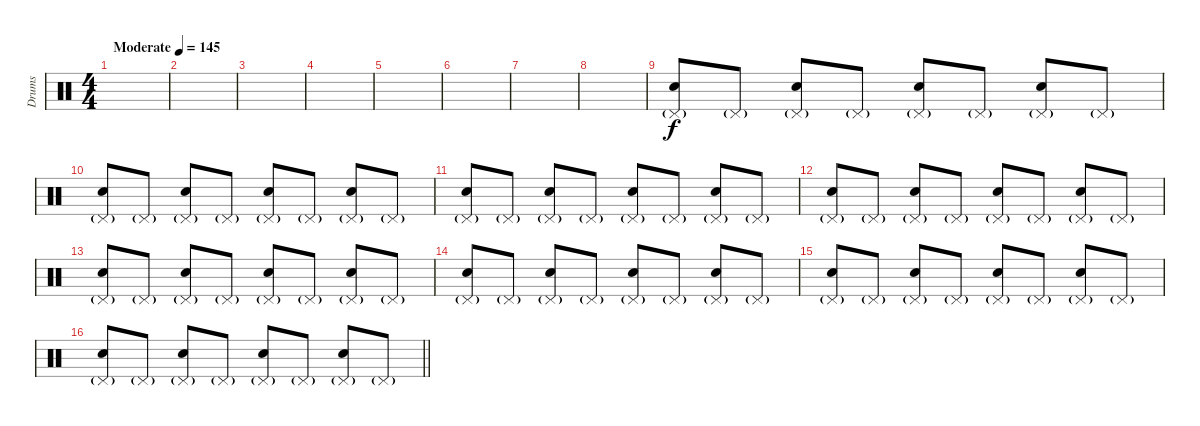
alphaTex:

\track ("Drums" "Drums") {instrument percussion}
\staff {score}
\articulation defaults
\ts (4 4)
\tempo (145 "Moderate")
\clef neutral
\ks c
|
|
|
|
|
|
|
|
("Pedal Hi-Hat (hit)"{g} "Electric Snare (hit)").8 "Pedal Hi-Hat (hit)"{g}.8 ("Pedal Hi-Hat (hit)"{g} "Electric Snare (hit)").8 "Pedal Hi-Hat (hit)"{g}.8 ("Pedal Hi-Hat (hit)"{g} "Electric Snare (hit)").8 "Pedal Hi-Hat (hit)"{g}.8 ("Pedal Hi-Hat (hit)"{g} "Electric Snare (hit)").8 "Pedal Hi-Hat (hit)"{g}.8 |
("Pedal Hi-Hat (hit)"{g} "Electric Snare (hit)").8 "Pedal Hi-Hat (hit)"{g}.8 ("Pedal Hi-Hat (hit)"{g} "Electric Snare (hit)").8 "Pedal Hi-Hat (hit)"{g}.8 ("Pedal Hi-Hat (hit)"{g} "Electric Snare (hit)").8 "Pedal Hi-Hat (hit)"{g}.8 ("Pedal Hi-Hat (hit)"{g} "Electric Snare (hit)").8 "Pedal Hi-Hat (hit)"{g}.8 |
("Pedal Hi-Hat (hit)"{g} "Electric Snare (hit)").8 "Pedal Hi-Hat (hit)"{g}.8 ("Pedal Hi-Hat (hit)"{g} "Electric Snare (hit)").8 "Pedal Hi-Hat (hit)"{g}.8 ("Pedal Hi-Hat (hit)"{g} "Electric Snare (hit)").8 "Pedal Hi-Hat (hit)"{g}.8 ("Pedal Hi-Hat (hit)"{g} "Electric Snare (hit)").8 "Pedal Hi-Hat (hit)"{g}.8 |
("Pedal Hi-Hat (hit)"{g} "Electric Snare (hit)").8 "Pedal Hi-Hat (hit)"{g}.8 ("Pedal Hi-Hat (hit)"{g} "Electric Snare (hit)").8 "Pedal Hi-Hat (hit)"{g}.8 ("Pedal Hi-Hat (hit)"{g} "Electric Snare (hit)").8 "Pedal Hi-Hat (hit)"{g}.8 ("Pedal Hi-Hat (hit)"{g} "Electric Snare (hit)").8 "Pedal Hi-Hat (hit)"{g}.8 |
("Pedal Hi-Hat (hit)"{g} "Electric Snare (hit)").8 "Pedal Hi-Hat (hit)"{g}.8 ("Pedal Hi-Hat (hit)"{g} "Electric Snare (hit)").8 "Pedal Hi-Hat (hit)"{g}.8 ("Pedal Hi-Hat (hit)"{g} "Electric Snare (hit)").8 "Pedal Hi-Hat (hit)"{g}.8 ("Pedal Hi-Hat (hit)"{g} "Electric Snare (hit)").8 "Pedal Hi-Hat (hit)"{g}.8 |
("Pedal Hi-Hat (hit)"{g} "Electric Snare (hit)").8 "Pedal Hi-Hat (hit)"{g}.8 ("Pedal Hi-Hat (hit)"{g} "Electric Snare (hit)").8 "Pedal Hi-Hat (hit)"{g}.8 ("Pedal Hi-Hat (hit)"{g} "Electric Snare (hit)").8 "Pedal Hi-Hat (hit)"{g}.8 ("Pedal Hi-Hat (hit)"{g} "Electric Snare (hit)").8 "Pedal Hi-Hat (hit)"{g}.8 |
("Pedal Hi-Hat (hit)"{g} "Electric Snare (hit)").8 "Pedal Hi-Hat (hit)"{g}.8 ("Pedal Hi-Hat (hit)"{g} "Electric Snare (hit)").8 "Pedal Hi-Hat (hit)"{g}.8 ("Pedal Hi-Hat (hit)"{g} "Electric Snare (hit)").8 "Pedal Hi-Hat (hit)"{g}.8 ("Pedal Hi-Hat (hit)"{g} "Electric Snare (hit)").8 "Pedal Hi-Hat (hit)"{g}.8 |
\barLineRight lightlight
("Pedal Hi-Hat (hit)"{g} "Electric Snare (hit)").8 "Pedal Hi-Hat (hit)"{g}.8 ("Pedal Hi-Hat (hit)"{g} "Electric Snare (hit)").8 "Pedal Hi-Hat (hit)"{g}.8 ("Pedal Hi-Hat (hit)"{g} "Electric Snare (hit)").8 "Pedal Hi-Hat (hit)"{g}.8 ("Pedal Hi-Hat (hit)"{g} "Electric Snare (hit)").8 "Pedal Hi-Hat (hit)"{g}.8
